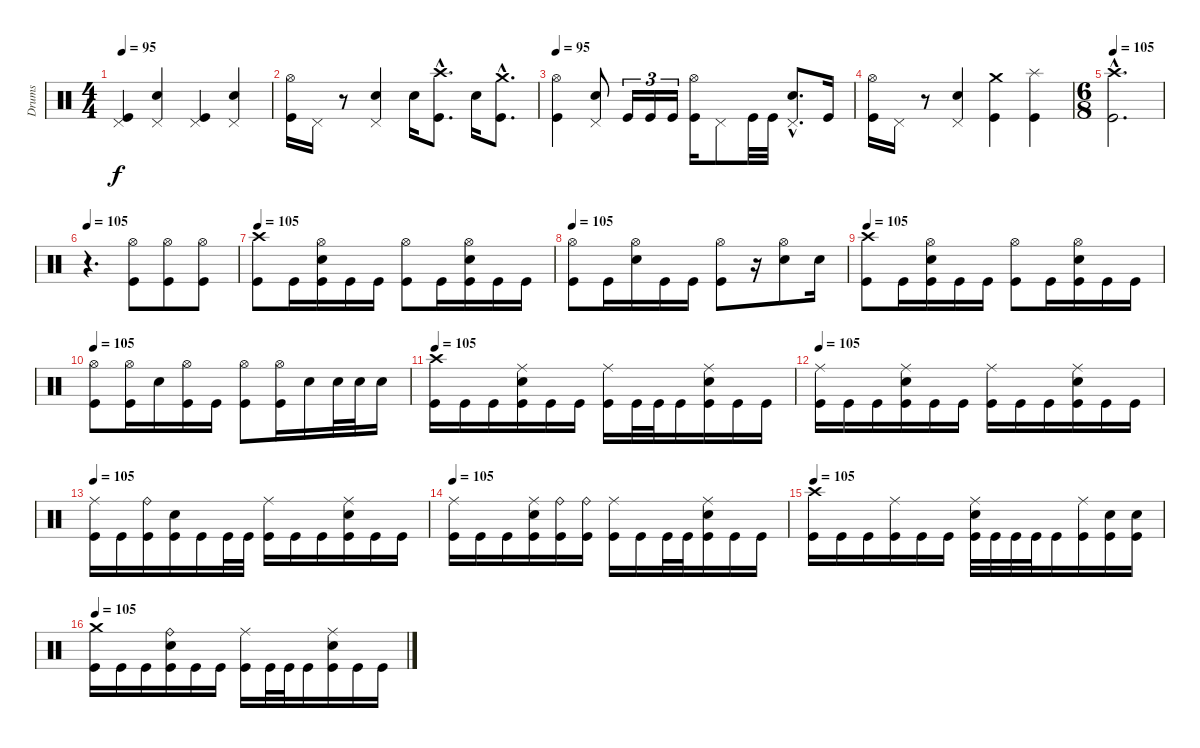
\track ("Drums" "Drums") {instrument percussion}
\staff {score}
\articulation defaults
\ts (4 4)
\tempo 95
\clef neutral
\ks c
("Pedal Hi-Hat (hit)" "Kick (hit)").4{dy f} ("Pedal Hi-Hat (hit)" "Electric Snare (hit)").4 ("Pedal Hi-Hat (hit)" "Kick (hit)").4 ("Pedal Hi-Hat (hit)" "Electric Snare (hit)").4 |
("Hi-Hat (open)" "Kick (hit)").16 "Pedal Hi-Hat (hit)".16 r.8 ("Pedal Hi-Hat (hit)" "Electric Snare (hit)").4 "Electric Snare (hit)".16 ("Crash high (hit)"{hac} "Kick (hit)"{hac}).8{d} "Electric Snare (hit)".16 ("Crash medium (hit)"{hac} "Kick (hit)"{hac}).8{d} |
\tempo 95
("Hi-Hat (open)" "Kick (hit)").4 ("Pedal Hi-Hat (hit)" "Electric Snare (hit)").8 "Kick (hit)".16{tu (3 2)} "Kick (hit)".16{tu (3 2)} "Kick (hit)".16{tu (3 2)} ("Hi-Hat (open)" "Kick (hit)").16 "Pedal Hi-Hat (hit)".8 "Kick (hit)".32 "Kick (hit)".32 ("Pedal Hi-Hat (hit)"{hac} "Electric Snare (hit)"{hac}).8{d} "Kick (hit)".16 |
("Hi-Hat (open)" "Kick (hit)").16 "Pedal Hi-Hat (hit)".16 r.8 ("Pedal Hi-Hat (hit)" "Electric Snare (hit)").4 ("Crash medium (hit)" "Kick (hit)").4 ("Splash (hit)" "Kick (hit)").4 |
\ts (6 8)
\tempo 105
("Crash high (hit)"{hac} "Kick (hit)"{hac}).2{d} |
\tempo 105
r.4{d} ("Hi-Hat (open)" "Kick (hit)").8 ("Hi-Hat (open)" "Kick (hit)").8 ("Hi-Hat (open)" "Kick (hit)").8 |
\tempo 105
("Crash high (hit)" "Kick (hit)").8 "Kick (hit)".16 ("Hi-Hat (open)" "Electric Snare (hit)" "Kick (hit)").16 "Kick (hit)".16 "Kick (hit)".16 ("Hi-Hat (open)" "Kick (hit)").8 "Kick (hit)".16 ("Hi-Hat (open)" "Electric Snare (hit)" "Kick (hit)").16 "Kick (hit)".16 "Kick (hit)".16 |
\tempo 105
("Hi-Hat (open)" "Kick (hit)").8 "Kick (hit)".16 ("Hi-Hat (open)" "Electric Snare (hit)").16 "Kick (hit)".16 "Kick (hit)".16 ("Hi-Hat (open)" "Kick (hit)").8 r.16 ("Hi-Hat (open)" "Electric Snare (hit)").8 "Electric Snare (hit)".16 |
\tempo 105
("Crash high (hit)" "Kick (hit)").8 "Kick (hit)".16 ("Hi-Hat (open)" "Electric Snare (hit)" "Kick (hit)").16 "Kick (hit)".16 "Kick (hit)".16 ("Hi-Hat (open)" "Kick (hit)").8 "Kick (hit)".16 ("Hi-Hat (open)" "Electric Snare (hit)" "Kick (hit)").16 "Kick (hit)".16 "Kick (hit)".16 |
\tempo 105
("Hi-Hat (open)" "Kick (hit)").8 ("Hi-Hat (open)" "Kick (hit)").16 "Electric Snare (hit)".16 ("Hi-Hat (open)" "Kick (hit)").16 "Kick (hit)".16 ("Hi-Hat (open)" "Kick (hit)").8 ("Hi-Hat (open)" "Kick (hit)").16 "Electric Snare (hit)".16 "Electric Snare (hit)".32 "Electric Snare (hit)".32 "Electric Snare (hit)".16 |
\tempo 105
("Crash high (hit)" "Kick (hit)").16 "Kick (hit)".16 "Kick (hit)".16 ("Ride (middle)" "Electric Snare (hit)" "Kick (hit)").16 "Kick (hit)".16 "Kick (hit)".16 ("Ride (middle)" "Kick (hit)").16 "Kick (hit)".32 "Kick (hit)".32 "Kick (hit)".16 ("Ride (middle)" "Electric Snare (hit)" "Kick (hit)").16 "Kick (hit)".16 "Kick (hit)".16 |
\tempo 105
("Ride (middle)" "Kick (hit)").16 "Kick (hit)".16 "Kick (hit)".16 ("Ride (middle)" "Electric Snare (hit)" "Kick (hit)").16 "Kick (hit)".16 "Kick (hit)".16 ("Ride (middle)" "Kick (hit)").16 "Kick (hit)".16 "Kick (hit)".16 ("Ride (middle)" "Electric Snare (hit)" "Kick (hit)").16 "Kick (hit)".16 "Kick (hit)".16 |
\tempo 105
("Ride (middle)" "Kick (hit)").16 "Kick (hit)".16 ("Ride (bell)" "Kick (hit)").16 ("Electric Snare (hit)" "Kick (hit)").16 "Kick (hit)".16 "Kick (hit)".32 "Kick (hit)".32 ("Ride (middle)" "Kick (hit)").16 "Kick (hit)".16 "Kick (hit)".16 ("Ride (middle)" "Electric Snare (hit)" "Kick (hit)").16 "Kick (hit)".16 "Kick (hit)".16 |
\tempo 105
("Ride (middle)" "Kick (hit)").16 "Kick (hit)".16 "Kick (hit)".16 ("Ride (middle)" "Electric Snare (hit)" "Kick (hit)").16 ("Ride (bell)" "Kick (hit)").16 ("Ride (bell)" "Kick (hit)").16 ("Ride (middle)" "Kick (hit)").16 "Kick (hit)".16 "Kick (hit)".32 "Kick (hit)".32 ("Ride (middle)" "Electric Snare (hit)" "Kick (hit)").16 "Kick (hit)".16 "Kick (hit)".16 |
\tempo 105
("Crash high (hit)" "Kick (hit)").16 "Kick (hit)".16 "Kick (hit)".16 ("Ride (middle)" "Kick (hit)").16 "Kick (hit)".16 "Kick (hit)".16 ("Ride (middle)" "Electric Snare (hit)" "Kick (hit)").32 "Kick (hit)".32 "Kick (hit)".32 "Kick (hit)".32 "Kick (hit)".16 ("Ride (middle)" "Kick (hit)").16 ("Electric Snare (hit)" "Kick (hit)").16 ("Electric Snare (hit)" "Kick (hit)").16 |
\tempo 105
("Crash medium (hit)" "Kick (hit)").16 "Kick (hit)".16 "Kick (hit)".16 ("Ride (bell)" "Electric Snare (hit)" "Kick (hit)").16 "Kick (hit)".16 "Kick (hit)".16 ("Ride (middle)" "Kick (hit)").16 "Kick (hit)".32 "Kick (hit)".32 "Kick (hit)".16 ("Ride (middle)" "Electric Snare (hit)" "Kick (hit)").16 "Kick (hit)".16 "Kick (hit)".16
